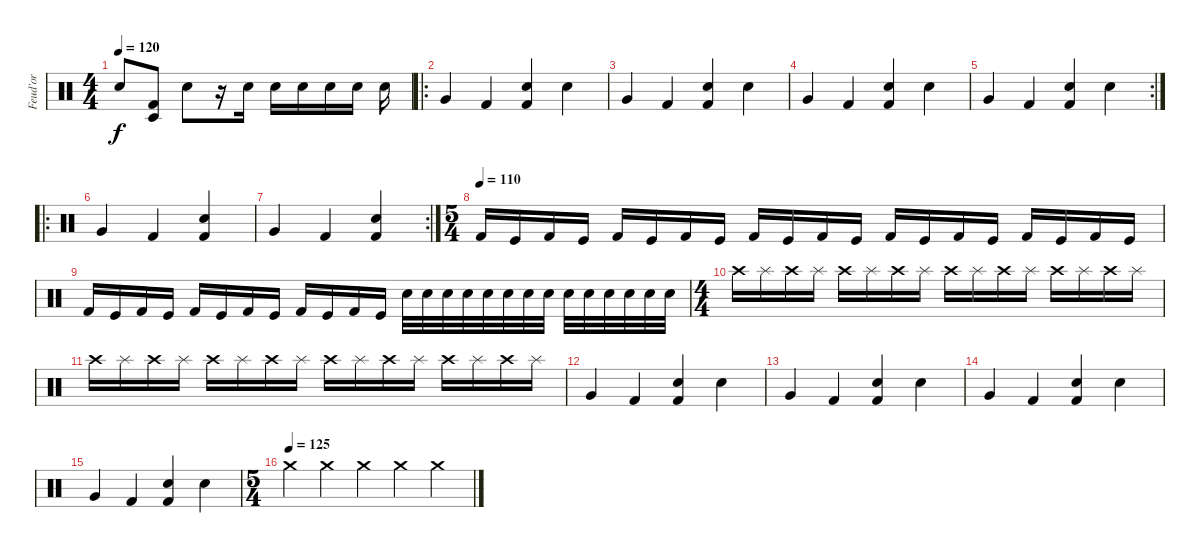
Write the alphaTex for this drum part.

\track ("Feud'or" "Feud'or") {instrument percussion}
\staff {score}
\articulation defaults
\ts (4 4)
\tempo 120
\clef neutral
\ks c "Electric Snare (hit)".8{dy f}
("Timbale low (hit)" "Kick (hit) 2").8 "Electric Snare (hit)".8 r.16 "Electric Snare (hit)".16 "Electric Snare (hit)".16 "Electric Snare (hit)".16 "Electric Snare (hit)".16 "Electric Snare (hit)".16 "Electric Snare (hit)".16 |
\ro "Very Low Tom (hit)".4 "Kick (hit) 2".4
("Kick (hit) 2" "Electric Snare (hit)").4 "Snare (hit) 2".4 |
"Very Low Tom (hit)".4 "Kick (hit) 2".4 ("Kick (hit) 2" "Electric Snare (hit)").4 "Snare (hit) 2".4 |
"Very Low Tom (hit)".4 "Kick (hit) 2".4 ("Kick (hit) 2" "Electric Snare (hit)").4 "Snare (hit) 2".4 |
\rc 2 "Very Low Tom (hit)".4 "Kick (hit) 2".4
("Kick (hit) 2" "Electric Snare (hit)").4 "Snare (hit) 2".4 |
\ro "Very Low Tom (hit)".4 "Kick (hit) 2".4
("Kick (hit) 2" "Electric Snare (hit)").4 |
\rc 2 "Very Low Tom (hit)".4 "Kick (hit) 2".4
("Kick (hit) 2" "Electric Snare (hit)").4 |
\ts (5 4)
\tempo (110)
"Kick (hit) 2".16 "Kick (hit)".16 "Kick (hit) 2".16 "Kick (hit)".16 "Kick (hit) 2".16 "Kick (hit)".16 "Kick (hit) 2".16 "Kick (hit)".16 "Kick (hit) 2".16 "Kick (hit)".16 "Kick (hit) 2".16 "Kick (hit)".16 "Kick (hit) 2".16 "Kick (hit)".16 "Kick (hit) 2".16 "Kick (hit)".16 "Kick (hit) 2".16 "Kick (hit)".16 "Kick (hit) 2".16 "Kick (hit)".16 |
"Kick (hit) 2".16 "Kick (hit)".16 "Kick (hit) 2".16 "Kick (hit)".16 "Kick (hit) 2".16 "Kick (hit)".16 "Kick (hit) 2".16 "Kick (hit)".16 "Kick (hit) 2".16 "Kick (hit)".16 "Kick (hit) 2".16 "Kick (hit)".16 "Snare (hit) 2".32 "Electric Snare (hit)".32 "Snare (hit) 2".32 "Electric Snare (hit)".32 "Snare (hit) 2".32 "Electric Snare (hit)".32 "Snare (hit) 2".32 "Electric Snare (hit)".32 "Snare (hit) 2".32 "Electric Snare (hit)".32 "Snare (hit) 2".32 "Electric Snare (hit)".32 "Snare (hit) 2".32 "Electric Snare (hit)".32 |
\ts (4 4)
"Crash high (hit)".16 "Splash (hit)".16 "Crash high (hit)".16 "Splash (hit)".16 "Crash high (hit)".16 "Splash (hit)".16 "Crash high (hit)".16 "Splash (hit)".16 "Crash high (hit)".16 "Splash (hit)".16 "Crash high (hit)".16 "Splash (hit)".16 "Crash high (hit)".16 "Splash (hit)".16 "Crash high (hit)".16 "Splash (hit)".16 |
"Crash high (hit)".16 "Splash (hit)".16 "Crash high (hit)".16 "Splash (hit)".16 "Crash high (hit)".16 "Splash (hit)".16 "Crash high (hit)".16 "Splash (hit)".16 "Crash high (hit)".16 "Splash (hit)".16 "Crash high (hit)".16 "Splash (hit)".16 "Crash high (hit)".16 "Splash (hit)".16 "Crash high (hit)".16 "Splash (hit)".16 |
"Very Low Tom (hit)".4 "Kick (hit) 2".4 ("Kick (hit) 2" "Electric Snare (hit)").4 "Snare (hit) 2".4 |
"Very Low Tom (hit)".4 "Kick (hit) 2".4 ("Kick (hit) 2" "Electric Snare (hit)").4 "Snare (hit) 2".4 |
"Very Low Tom (hit)".4 "Kick (hit) 2".4 ("Kick (hit) 2" "Electric Snare (hit)").4 "Snare (hit) 2".4 |
"Very Low Tom (hit)".4 "Kick (hit) 2".4 ("Kick (hit) 2" "Electric Snare (hit)").4 "Snare (hit) 2".4 |
\ts (5 4)
\tempo (125)
"Crash medium (hit)".4 "Crash medium (hit)".4 "Crash medium (hit)".4 "Crash medium (hit)".4 "Crash medium (hit)".4
